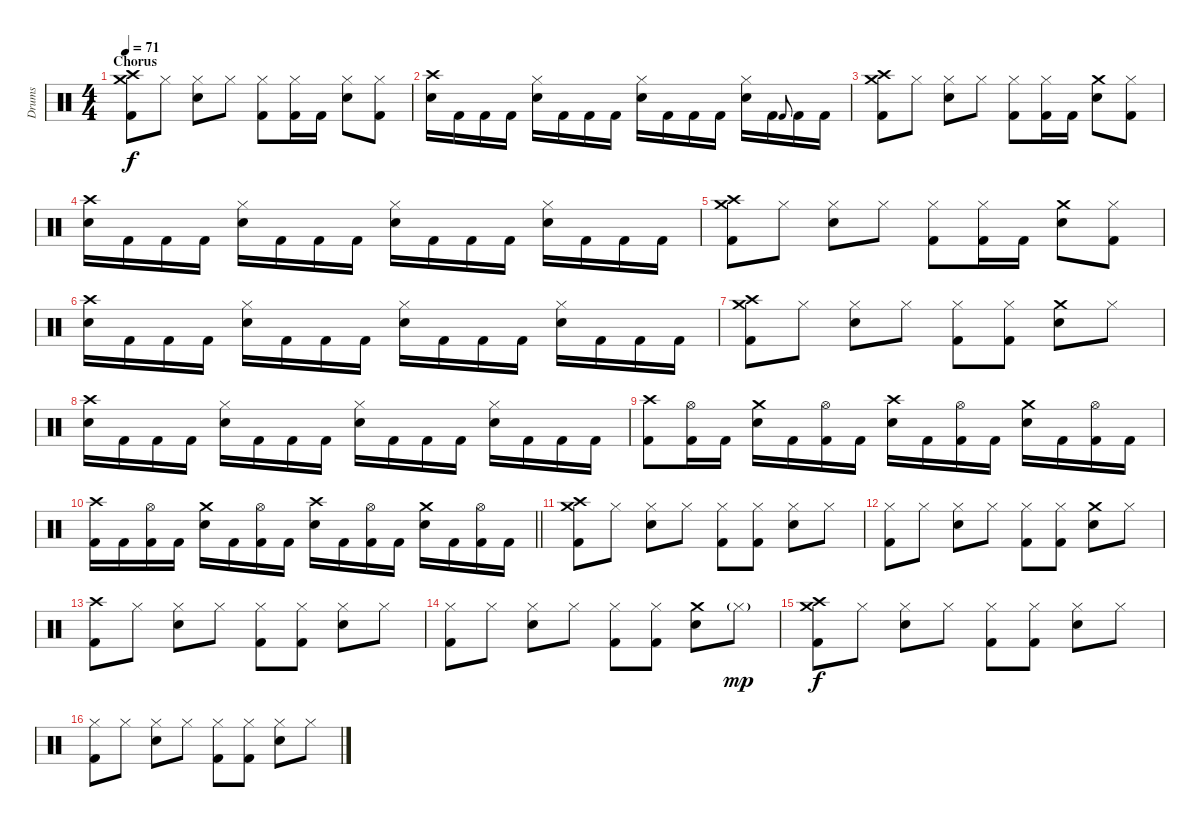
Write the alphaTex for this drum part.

\track ("Drums" "Drums") {instrument percussion}
\staff {score}
\articulation defaults
\ts (4 4)
\section ("" "Chorus")
\tempo 71
\clef neutral
\ks c
("Crash medium (hit)" "Crash high (hit)" "Kick (hit) 2").8{dy f} "Hi-Hat (closed)".8 ("Hi-Hat (closed)" "Snare (hit) 2").8 "Hi-Hat (closed)".8 ("Hi-Hat (closed)" "Kick (hit) 2").8 ("Hi-Hat (closed)" "Kick (hit) 2").16 "Kick (hit) 2".16 ("Hi-Hat (closed)" "Snare (hit) 2").8 ("Hi-Hat (closed)" "Kick (hit) 2").8 |
("Crash high (hit)" "Snare (hit) 2").16 "Kick (hit) 2".16 "Kick (hit) 2".16 "Kick (hit) 2".16 ("Hi-Hat (closed)" "Snare (hit) 2").16 "Kick (hit) 2".16 "Kick (hit) 2".16 "Kick (hit) 2".16 ("Hi-Hat (closed)" "Snare (hit) 2").16 "Kick (hit) 2".16 "Kick (hit) 2".16 "Kick (hit) 2".16 ("Hi-Hat (closed)" "Snare (hit) 2").16 "Kick (hit) 2".16 "Kick (hit) 2".8{gr onbeat} "Kick (hit) 2".16 "Kick (hit) 2".16 |
("Crash medium (hit)" "Crash high (hit)" "Kick (hit) 2").8 "Hi-Hat (closed)".8 ("Hi-Hat (closed)" "Snare (hit) 2").8 "Hi-Hat (closed)".8 ("Hi-Hat (closed)" "Kick (hit) 2").8 ("Hi-Hat (closed)" "Kick (hit) 2").16 "Kick (hit) 2".16 ("Crash medium (hit)" "Snare (hit) 2").8 ("Hi-Hat (closed)" "Kick (hit) 2").8 |
("Crash high (hit)" "Snare (hit) 2").16 "Kick (hit) 2".16 "Kick (hit) 2".16 "Kick (hit) 2".16 ("Hi-Hat (closed)" "Snare (hit) 2").16 "Kick (hit) 2".16 "Kick (hit) 2".16 "Kick (hit) 2".16 ("Hi-Hat (closed)" "Snare (hit) 2").16 "Kick (hit) 2".16 "Kick (hit) 2".16 "Kick (hit) 2".16 ("Hi-Hat (closed)" "Snare (hit) 2").16 "Kick (hit) 2".16 "Kick (hit) 2".16 "Kick (hit) 2".16 |
("Crash medium (hit)" "Crash high (hit)" "Kick (hit) 2").8 "Hi-Hat (closed)".8 ("Hi-Hat (closed)" "Snare (hit) 2").8 "Hi-Hat (closed)".8 ("Hi-Hat (closed)" "Kick (hit) 2").8 ("Hi-Hat (closed)" "Kick (hit) 2").16 "Kick (hit) 2".16 ("Crash medium (hit)" "Snare (hit) 2").8 ("Hi-Hat (closed)" "Kick (hit) 2").8 |
("Crash high (hit)" "Snare (hit) 2").16 "Kick (hit) 2".16 "Kick (hit) 2".16 "Kick (hit) 2".16 ("Hi-Hat (closed)" "Snare (hit) 2").16 "Kick (hit) 2".16 "Kick (hit) 2".16 "Kick (hit) 2".16 ("Hi-Hat (closed)" "Snare (hit) 2").16 "Kick (hit) 2".16 "Kick (hit) 2".16 "Kick (hit) 2".16 ("Hi-Hat (closed)" "Snare (hit) 2").16 "Kick (hit) 2".16 "Kick (hit) 2".16 "Kick (hit) 2".16 |
("Crash medium (hit)" "Crash high (hit)" "Kick (hit) 2").8 "Hi-Hat (closed)".8 ("Hi-Hat (closed)" "Snare (hit) 2").8 "Hi-Hat (closed)".8 ("Hi-Hat (closed)" "Kick (hit) 2").8 ("Hi-Hat (closed)" "Kick (hit) 2").8 ("Crash medium (hit)" "Snare (hit) 2").8 "Hi-Hat (closed)".8 |
("Crash high (hit)" "Snare (hit) 2").16 "Kick (hit) 2".16 "Kick (hit) 2".16 "Kick (hit) 2".16 ("Hi-Hat (closed)" "Snare (hit) 2").16 "Kick (hit) 2".16 "Kick (hit) 2".16 "Kick (hit) 2".16 ("Hi-Hat (closed)" "Snare (hit) 2").16 "Kick (hit) 2".16 "Kick (hit) 2".16 "Kick (hit) 2".16 ("Hi-Hat (closed)" "Snare (hit) 2").16 "Kick (hit) 2".16 "Kick (hit) 2".16 "Kick (hit) 2".16 |
("Crash high (hit)" "Kick (hit) 2").8 ("Hi-Hat (open)" "Kick (hit) 2").16 "Kick (hit) 2".16 ("Crash medium (hit)" "Snare (hit) 2").16 "Kick (hit) 2".16 ("Hi-Hat (open)" "Kick (hit) 2").16 "Kick (hit) 2".16 ("Crash high (hit)" "Snare (hit) 2").16 "Kick (hit) 2".16 ("Hi-Hat (open)" "Kick (hit) 2").16 "Kick (hit) 2".16 ("Crash medium (hit)" "Snare (hit) 2").16 "Kick (hit) 2".16 ("Hi-Hat (open)" "Kick (hit) 2").16 "Kick (hit) 2".16 |
\barLineRight lightlight
("Crash high (hit)" "Kick (hit) 2").16 "Kick (hit) 2".16 ("Hi-Hat (open)" "Kick (hit) 2").16 "Kick (hit) 2".16 ("Crash medium (hit)" "Snare (hit) 2").16 "Kick (hit) 2".16 ("Hi-Hat (open)" "Kick (hit) 2").16 "Kick (hit) 2".16 ("Crash high (hit)" "Snare (hit) 2").16 "Kick (hit) 2".16 ("Hi-Hat (open)" "Kick (hit) 2").16 "Kick (hit) 2".16 ("Crash medium (hit)" "Snare (hit) 2").16 "Kick (hit) 2".16 ("Hi-Hat (open)" "Kick (hit) 2").16 "Kick (hit) 2".16 |
\section ("" "")
("Crash medium (hit)" "Crash high (hit)" "Kick (hit) 2").8 "Hi-Hat (closed)".8 ("Hi-Hat (closed)" "Snare (hit) 2").8 "Hi-Hat (closed)".8 ("Hi-Hat (closed)" "Kick (hit) 2").8 ("Hi-Hat (closed)" "Kick (hit) 2").8 ("Hi-Hat (closed)" "Snare (hit) 2").8 "Hi-Hat (closed)".8 |
("Hi-Hat (closed)" "Kick (hit) 2").8 "Hi-Hat (closed)".8 ("Hi-Hat (closed)" "Snare (hit) 2").8 "Hi-Hat (closed)".8 ("Hi-Hat (closed)" "Kick (hit) 2").8 ("Hi-Hat (closed)" "Kick (hit) 2").8 ("Crash medium (hit)" "Snare (hit) 2").8 "Hi-Hat (closed)".8 |
("Crash high (hit)" "Kick (hit) 2").8 "Hi-Hat (closed)".8 ("Hi-Hat (closed)" "Snare (hit) 2").8 "Hi-Hat (closed)".8 ("Hi-Hat (closed)" "Kick (hit) 2").8 ("Hi-Hat (closed)" "Kick (hit) 2").8 ("Hi-Hat (closed)" "Snare (hit) 2").8 "Hi-Hat (closed)".8 |
("Hi-Hat (closed)" "Kick (hit) 2").8 "Hi-Hat (closed)".8 ("Hi-Hat (closed)" "Snare (hit) 2").8 "Hi-Hat (closed)".8 ("Hi-Hat (closed)" "Kick (hit) 2").8 ("Hi-Hat (closed)" "Kick (hit) 2").8 ("Crash medium (hit)" "Snare (hit) 2").8 "Hi-Hat (closed)"{g}.8{dy mp} |
("Crash medium (hit)" "Crash high (hit)" "Kick (hit) 2").8{dy f} "Hi-Hat (closed)".8 ("Hi-Hat (closed)" "Snare (hit) 2").8 "Hi-Hat (closed)".8 ("Hi-Hat (closed)" "Kick (hit) 2").8 ("Hi-Hat (closed)" "Kick (hit) 2").8 ("Hi-Hat (closed)" "Snare (hit) 2").8 "Hi-Hat (closed)".8 |
("Hi-Hat (closed)" "Kick (hit) 2").8 "Hi-Hat (closed)".8 ("Hi-Hat (closed)" "Snare (hit) 2").8 "Hi-Hat (closed)".8 ("Hi-Hat (closed)" "Kick (hit) 2").8 ("Hi-Hat (closed)" "Kick (hit) 2").8 ("Hi-Hat (closed)" "Snare (hit) 2").8 "Hi-Hat (closed)".8
